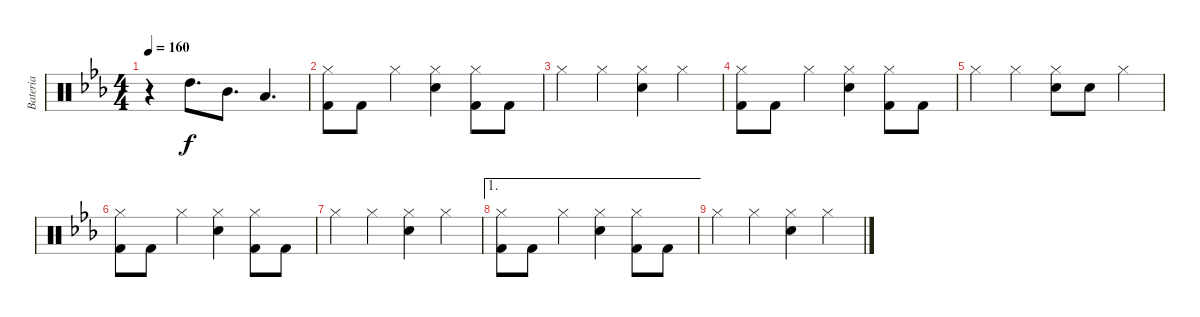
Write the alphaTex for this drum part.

\track ("Bateria" "Bateria") {instrument percussion}
\staff {score}
\articulation defaults
\ts (4 4)
\tempo 160
\clef neutral
\ks eb
r.4{dy f} "High Tom (hit)".8{d} "Mid Tom (hit)".8{d} "Low Tom (hit)".4{d} |
("Hi-Hat (closed)" "Kick (hit) 2").8 "Kick (hit) 2".8 "Hi-Hat (closed)".4 ("Electric Snare (hit)" "Hi-Hat (closed)").4 ("Hi-Hat (closed)" "Kick (hit) 2").8 "Kick (hit) 2".8 |
"Hi-Hat (closed)".4 "Hi-Hat (closed)".4 ("Electric Snare (hit)" "Hi-Hat (closed)").4 "Hi-Hat (closed)".4 |
("Hi-Hat (closed)" "Kick (hit) 2").8 "Kick (hit) 2".8 "Hi-Hat (closed)".4 ("Electric Snare (hit)" "Hi-Hat (closed)").4 ("Hi-Hat (closed)" "Kick (hit) 2").8 "Kick (hit) 2".8 |
"Hi-Hat (closed)".4 "Hi-Hat (closed)".4 ("Electric Snare (hit)" "Hi-Hat (closed)").8 "Electric Snare (hit)".8 "Hi-Hat (closed)".4 |
("Hi-Hat (closed)" "Kick (hit) 2").8 "Kick (hit) 2".8 "Hi-Hat (closed)".4 ("Electric Snare (hit)" "Hi-Hat (closed)").4 ("Hi-Hat (closed)" "Kick (hit) 2").8 "Kick (hit) 2".8 |
"Hi-Hat (closed)".4 "Hi-Hat (closed)".4 ("Electric Snare (hit)" "Hi-Hat (closed)").4 "Hi-Hat (closed)".4 |
\ae 1
("Hi-Hat (closed)" "Kick (hit) 2").8 "Kick (hit) 2".8 "Hi-Hat (closed)".4 ("Electric Snare (hit)" "Hi-Hat (closed)").4 ("Hi-Hat (closed)" "Kick (hit) 2").8 "Kick (hit) 2".8 |
"Hi-Hat (closed)".4 "Hi-Hat (closed)".4 ("Electric Snare (hit)" "Hi-Hat (closed)").4 "Hi-Hat (closed)".4
